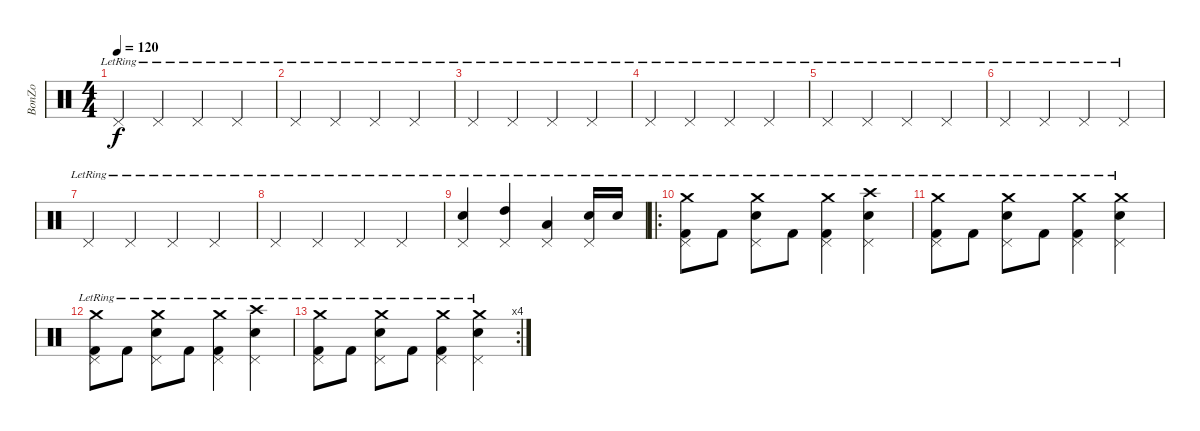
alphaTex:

\track ("BonZo" "BonZo") {instrument percussion}
\staff {score}
\articulation defaults
\ts (4 4)
\tempo 120
\clef neutral
\ks c "Pedal Hi-Hat (hit)"{lr}.4{dy f} "Pedal Hi-Hat (hit)"{lr}.4 "Pedal Hi-Hat (hit)"{lr}.4 "Pedal Hi-Hat (hit)"{lr}.4
|
"Pedal Hi-Hat (hit)"{lr}.4 "Pedal Hi-Hat (hit)"{lr}.4 "Pedal Hi-Hat (hit)"{lr}.4 "Pedal Hi-Hat (hit)"{lr}.4 |
"Pedal Hi-Hat (hit)"{lr}.4 "Pedal Hi-Hat (hit)"{lr}.4 "Pedal Hi-Hat (hit)"{lr}.4 "Pedal Hi-Hat (hit)"{lr}.4 |
"Pedal Hi-Hat (hit)"{lr}.4 "Pedal Hi-Hat (hit)"{lr}.4 "Pedal Hi-Hat (hit)"{lr}.4 "Pedal Hi-Hat (hit)"{lr}.4 |
"Pedal Hi-Hat (hit)"{lr}.4 "Pedal Hi-Hat (hit)"{lr}.4 "Pedal Hi-Hat (hit)"{lr}.4 "Pedal Hi-Hat (hit)"{lr}.4 |
"Pedal Hi-Hat (hit)"{lr}.4 "Pedal Hi-Hat (hit)"{lr}.4 "Pedal Hi-Hat (hit)"{lr}.4 "Pedal Hi-Hat (hit)"{lr}.4 |
"Pedal Hi-Hat (hit)"{lr}.4 "Pedal Hi-Hat (hit)"{lr}.4 "Pedal Hi-Hat (hit)"{lr}.4 "Pedal Hi-Hat (hit)"{lr}.4 |
"Pedal Hi-Hat (hit)"{lr}.4 "Pedal Hi-Hat (hit)"{lr}.4 "Pedal Hi-Hat (hit)"{lr}.4 "Pedal Hi-Hat (hit)"{lr}.4 |
("Electric Snare (hit)"{lr} "Pedal Hi-Hat (hit)"{lr}).4 ("High Tom (hit)"{lr} "Pedal Hi-Hat (hit)"{lr}).4 ("Low Tom (hit)"{lr} "Pedal Hi-Hat (hit)"{lr}).4 ("Electric Snare (hit)"{lr} "Pedal Hi-Hat (hit)"{lr}).16 "Electric Snare (hit)"{lr}.16 |
\ro
("Kick (hit) 2"{lr} "Crash medium (hit)"{lr} "Pedal Hi-Hat (hit)"{lr}).8 "Kick (hit) 2"{lr}.8 ("Electric Snare (hit)"{lr} "Crash medium (hit)"{lr} "Pedal Hi-Hat (hit)"{lr}).8 "Kick (hit) 2"{lr}.8 ("Kick (hit) 2"{lr} "Crash medium (hit)"{lr} "Pedal Hi-Hat (hit)"{lr}).4 ("Electric Snare (hit)"{lr} "Crash high (hit)"{lr} "Pedal Hi-Hat (hit)"{lr}).4 |
("Kick (hit) 2"{lr} "Crash medium (hit)"{lr} "Pedal Hi-Hat (hit)"{lr}).8 "Kick (hit) 2"{lr}.8 ("Electric Snare (hit)"{lr} "Crash medium (hit)"{lr} "Pedal Hi-Hat (hit)"{lr}).8 "Kick (hit) 2"{lr}.8 ("Kick (hit) 2"{lr} "Crash medium (hit)"{lr} "Pedal Hi-Hat (hit)"{lr}).4 ("Electric Snare (hit)"{lr} "Crash medium (hit)"{lr} "Pedal Hi-Hat (hit)"{lr}).4 |
("Kick (hit) 2"{lr} "Crash medium (hit)"{lr} "Pedal Hi-Hat (hit)"{lr}).8 "Kick (hit) 2"{lr}.8 ("Electric Snare (hit)"{lr} "Crash medium (hit)"{lr} "Pedal Hi-Hat (hit)"{lr}).8 "Kick (hit) 2"{lr}.8 ("Kick (hit) 2"{lr} "Crash medium (hit)"{lr} "Pedal Hi-Hat (hit)"{lr}).4 ("Electric Snare (hit)"{lr} "Crash high (hit)"{lr} "Pedal Hi-Hat (hit)"{lr}).4 |
\rc 4
("Kick (hit) 2"{lr} "Crash medium (hit)"{lr} "Pedal Hi-Hat (hit)"{lr}).8 "Kick (hit) 2"{lr}.8 ("Electric Snare (hit)"{lr} "Crash medium (hit)"{lr} "Pedal Hi-Hat (hit)"{lr}).8 "Kick (hit) 2"{lr}.8 ("Kick (hit) 2"{lr} "Crash medium (hit)"{lr} "Pedal Hi-Hat (hit)"{lr}).4 ("Electric Snare (hit)"{lr} "Crash medium (hit)"{lr} "Pedal Hi-Hat (hit)"{lr}).4
